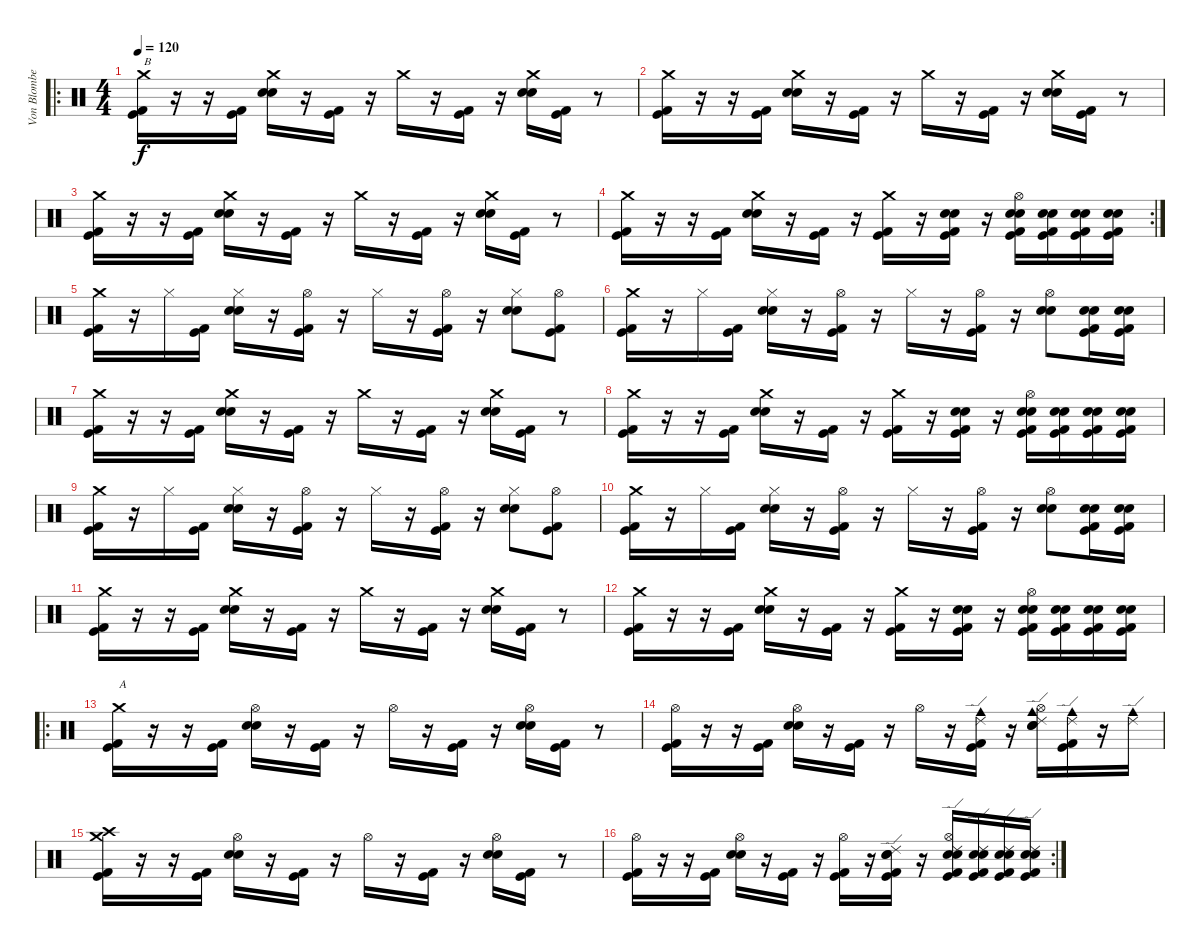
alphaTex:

\track ("Von Blomberg" "Von Blombe") {instrument percussion}
\staff {score}
\articulation defaults
\ro
\ts (4 4)
\tempo 120
\clef neutral
\ks c
("Crash medium (hit)" "Kick (hit) 2" "Kick (hit)").16{txt "B" dy f} r.16 r.16 ("Kick (hit)" "Kick (hit) 2").16 ("Crash medium (hit)" "Electric Snare (hit)" "Snare (hit) 2").16 r.16 ("Kick (hit)" "Kick (hit) 2").16 r.16 "Crash medium (hit)".16 r.16 ("Kick (hit)" "Kick (hit) 2").16 r.16 ("Crash medium (hit)" "Snare (hit) 2" "Electric Snare (hit)").16 ("Kick (hit)" "Kick (hit) 2").16 r.8 |
("Crash medium (hit)" "Kick (hit) 2" "Kick (hit)").16 r.16 r.16 ("Kick (hit)" "Kick (hit) 2").16 ("Crash medium (hit)" "Electric Snare (hit)" "Snare (hit) 2").16 r.16 ("Kick (hit)" "Kick (hit) 2").16 r.16 "Crash medium (hit)".16 r.16 ("Kick (hit)" "Kick (hit) 2").16 r.16 ("Crash medium (hit)" "Snare (hit) 2" "Electric Snare (hit)").16 ("Kick (hit)" "Kick (hit) 2").16 r.8 |
("Crash medium (hit)" "Kick (hit) 2" "Kick (hit)").16 r.16 r.16 ("Kick (hit)" "Kick (hit) 2").16 ("Crash medium (hit)" "Electric Snare (hit)" "Snare (hit) 2").16 r.16 ("Kick (hit)" "Kick (hit) 2").16 r.16 "Crash medium (hit)".16 r.16 ("Kick (hit)" "Kick (hit) 2").16 r.16 ("Crash medium (hit)" "Snare (hit) 2" "Electric Snare (hit)").16 ("Kick (hit)" "Kick (hit) 2").16 r.8 |
\rc 2
("Crash medium (hit)" "Kick (hit) 2" "Kick (hit)").16 r.16 r.16 ("Kick (hit)" "Kick (hit) 2").16 ("Crash medium (hit)" "Electric Snare (hit)" "Snare (hit) 2").16 r.16 ("Kick (hit)" "Kick (hit) 2").16 r.16 ("Crash medium (hit)" "Kick (hit)" "Kick (hit) 2").16 r.16 ("Snare (hit) 2" "Electric Snare (hit)" "Kick (hit)" "Kick (hit) 2").16 r.16 ("Kick (hit)" "Hi-Hat (open)" "Electric Snare (hit)" "Snare (hit) 2" "Kick (hit) 2").16 ("Snare (hit) 2" "Electric Snare (hit)" "Kick (hit)" "Kick (hit) 2").16 ("Snare (hit) 2" "Electric Snare (hit)" "Kick (hit)" "Kick (hit) 2").16 ("Snare (hit) 2" "Electric Snare (hit)" "Kick (hit)" "Kick (hit) 2").16 |
("Crash medium (hit)" "Kick (hit) 2" "Kick (hit)").16 r.16 "Hi-Hat (closed)".16 ("Kick (hit)" "Kick (hit) 2").16 ("Hi-Hat (closed)" "Electric Snare (hit)" "Snare (hit) 2").16 r.16 ("Hi-Hat (open)" "Kick (hit)" "Kick (hit) 2").16 r.16 "Hi-Hat (closed)".16 r.16 ("Hi-Hat (open)" "Kick (hit)" "Kick (hit) 2").16 r.16 ("Hi-Hat (closed)" "Snare (hit) 2" "Electric Snare (hit)").8 ("Hi-Hat (open)" "Kick (hit) 2" "Kick (hit)").8 |
("Crash medium (hit)" "Kick (hit) 2" "Kick (hit)").16 r.16 "Hi-Hat (closed)".16 ("Kick (hit)" "Kick (hit) 2").16 ("Hi-Hat (closed)" "Electric Snare (hit)" "Snare (hit) 2").16 r.16 ("Hi-Hat (open)" "Kick (hit)" "Kick (hit) 2").16 r.16 "Hi-Hat (closed)".16 r.16 ("Hi-Hat (open)" "Kick (hit)" "Kick (hit) 2").16 r.16 ("Hi-Hat (open)" "Snare (hit) 2" "Electric Snare (hit)").8 ("Electric Snare (hit)" "Snare (hit) 2" "Kick (hit) 2" "Kick (hit)").16 ("Electric Snare (hit)" "Snare (hit) 2" "Kick (hit)" "Kick (hit) 2").16 |
("Crash medium (hit)" "Kick (hit) 2" "Kick (hit)").16 r.16 r.16 ("Kick (hit)" "Kick (hit) 2").16 ("Crash medium (hit)" "Electric Snare (hit)" "Snare (hit) 2").16 r.16 ("Kick (hit)" "Kick (hit) 2").16 r.16 "Crash medium (hit)".16 r.16 ("Kick (hit)" "Kick (hit) 2").16 r.16 ("Crash medium (hit)" "Snare (hit) 2" "Electric Snare (hit)").16 ("Kick (hit)" "Kick (hit) 2").16 r.8 |
("Crash medium (hit)" "Kick (hit) 2" "Kick (hit)").16 r.16 r.16 ("Kick (hit)" "Kick (hit) 2").16 ("Crash medium (hit)" "Electric Snare (hit)" "Snare (hit) 2").16 r.16 ("Kick (hit)" "Kick (hit) 2").16 r.16 ("Crash medium (hit)" "Kick (hit)" "Kick (hit) 2").16 r.16 ("Snare (hit) 2" "Electric Snare (hit)" "Kick (hit)" "Kick (hit) 2").16 r.16 ("Kick (hit)" "Hi-Hat (open)" "Electric Snare (hit)" "Snare (hit) 2" "Kick (hit) 2").16 ("Snare (hit) 2" "Electric Snare (hit)" "Kick (hit)" "Kick (hit) 2").16 ("Snare (hit) 2" "Electric Snare (hit)" "Kick (hit)" "Kick (hit) 2").16 ("Snare (hit) 2" "Electric Snare (hit)" "Kick (hit)" "Kick (hit) 2").16 |
("Crash medium (hit)" "Kick (hit) 2" "Kick (hit)").16 r.16 "Hi-Hat (closed)".16 ("Kick (hit)" "Kick (hit) 2").16 ("Hi-Hat (closed)" "Electric Snare (hit)" "Snare (hit) 2").16 r.16 ("Hi-Hat (open)" "Kick (hit)" "Kick (hit) 2").16 r.16 "Hi-Hat (closed)".16 r.16 ("Hi-Hat (open)" "Kick (hit)" "Kick (hit) 2").16 r.16 ("Hi-Hat (closed)" "Snare (hit) 2" "Electric Snare (hit)").8 ("Hi-Hat (open)" "Kick (hit) 2" "Kick (hit)").8 |
("Crash medium (hit)" "Kick (hit) 2" "Kick (hit)").16 r.16 "Hi-Hat (closed)".16 ("Kick (hit)" "Kick (hit) 2").16 ("Hi-Hat (closed)" "Electric Snare (hit)" "Snare (hit) 2").16 r.16 ("Hi-Hat (open)" "Kick (hit)" "Kick (hit) 2").16 r.16 "Hi-Hat (closed)".16 r.16 ("Hi-Hat (open)" "Kick (hit)" "Kick (hit) 2").16 r.16 ("Hi-Hat (open)" "Snare (hit) 2" "Electric Snare (hit)").8 ("Electric Snare (hit)" "Snare (hit) 2" "Kick (hit) 2" "Kick (hit)").16 ("Electric Snare (hit)" "Snare (hit) 2" "Kick (hit)" "Kick (hit) 2").16 |
("Crash medium (hit)" "Kick (hit) 2" "Kick (hit)").16 r.16 r.16 ("Kick (hit)" "Kick (hit) 2").16 ("Crash medium (hit)" "Electric Snare (hit)" "Snare (hit) 2").16 r.16 ("Kick (hit)" "Kick (hit) 2").16 r.16 "Crash medium (hit)".16 r.16 ("Kick (hit)" "Kick (hit) 2").16 r.16 ("Crash medium (hit)" "Snare (hit) 2" "Electric Snare (hit)").16 ("Kick (hit)" "Kick (hit) 2").16 r.8 |
("Crash medium (hit)" "Kick (hit) 2" "Kick (hit)").16 r.16 r.16 ("Kick (hit)" "Kick (hit) 2").16 ("Crash medium (hit)" "Electric Snare (hit)" "Snare (hit) 2").16 r.16 ("Kick (hit)" "Kick (hit) 2").16 r.16 ("Crash medium (hit)" "Kick (hit)" "Kick (hit) 2").16 r.16 ("Snare (hit) 2" "Electric Snare (hit)" "Kick (hit)" "Kick (hit) 2").16 r.16 ("Kick (hit)" "Hi-Hat (open)" "Electric Snare (hit)" "Snare (hit) 2" "Kick (hit) 2").16 ("Snare (hit) 2" "Electric Snare (hit)" "Kick (hit)" "Kick (hit) 2").16 ("Snare (hit) 2" "Electric Snare (hit)" "Kick (hit)" "Kick (hit) 2").16 ("Snare (hit) 2" "Electric Snare (hit)" "Kick (hit)" "Kick (hit) 2").16 |
\ro
("Crash medium (hit)" "Kick (hit) 2" "Kick (hit)").16{txt "A"} r.16 r.16 ("Kick (hit)" "Kick (hit) 2").16 ("Hi-Hat (open)" "Electric Snare (hit)" "Snare (hit) 2").16 r.16 ("Kick (hit)" "Kick (hit) 2").16 r.16 "Hi-Hat (open)".16 r.16 ("Kick (hit)" "Kick (hit) 2").16 r.16 ("Hi-Hat (open)" "Snare (hit) 2" "Electric Snare (hit)").16 ("Kick (hit)" "Kick (hit) 2").16 r.8 |
("Hi-Hat (open)" "Kick (hit) 2" "Kick (hit)").16 r.16 r.16 ("Kick (hit)" "Kick (hit) 2").16 ("Hi-Hat (open)" "Electric Snare (hit)" "Snare (hit) 2").16 r.16 ("Kick (hit)" "Kick (hit) 2").16 r.16 "Hi-Hat (open)".16 r.16 ("Cowbell medium (hit)" "Ride (edge) 2" "Kick (hit)" "Kick (hit) 2").16 r.16 ("Cowbell medium (hit)" "Ride (edge) 2" "Hi-Hat (open)" "Snare (hit) 2" "Electric Snare (hit)").16 ("Cowbell medium (hit)" "Ride (edge) 2" "Kick (hit)" "Kick (hit) 2").16 r.16 ("Cowbell medium (hit)" "Ride (edge) 2").16 |
("Crash high (hit)" "Crash medium (hit)" "Kick (hit) 2" "Kick (hit)").16 r.16 r.16 ("Kick (hit)" "Kick (hit) 2").16 ("Hi-Hat (open)" "Electric Snare (hit)" "Snare (hit) 2").16 r.16 ("Kick (hit)" "Kick (hit) 2").16 r.16 "Hi-Hat (open)".16 r.16 ("Kick (hit)" "Kick (hit) 2").16 r.16 ("Hi-Hat (open)" "Snare (hit) 2" "Electric Snare (hit)").16 ("Kick (hit)" "Kick (hit) 2").16 r.8 |
\rc 2
("Hi-Hat (open)" "Kick (hit) 2" "Kick (hit)").16 r.16 r.16 ("Kick (hit)" "Kick (hit) 2").16 ("Hi-Hat (open)" "Electric Snare (hit)" "Snare (hit) 2").16 r.16 ("Kick (hit)" "Kick (hit) 2").16 r.16 ("Hi-Hat (open)" "Kick (hit)" "Kick (hit) 2").16 r.16 ("Ride (edge) 2" "Snare (hit) 2" "Electric Snare (hit)" "Kick (hit)" "Kick (hit) 2").16 r.16 ("Ride (edge) 2" "Kick (hit)" "Hi-Hat (open)" "Electric Snare (hit)" "Snare (hit) 2" "Kick (hit) 2").16 ("Ride (edge) 2" "Snare (hit) 2" "Electric Snare (hit)" "Kick (hit)" "Kick (hit) 2").16 ("Ride (edge) 2" "Snare (hit) 2" "Electric Snare (hit)" "Kick (hit)" "Kick (hit) 2").16 ("Ride (edge) 2" "Snare (hit) 2" "Electric Snare (hit)" "Kick (hit)" "Kick (hit) 2").16
